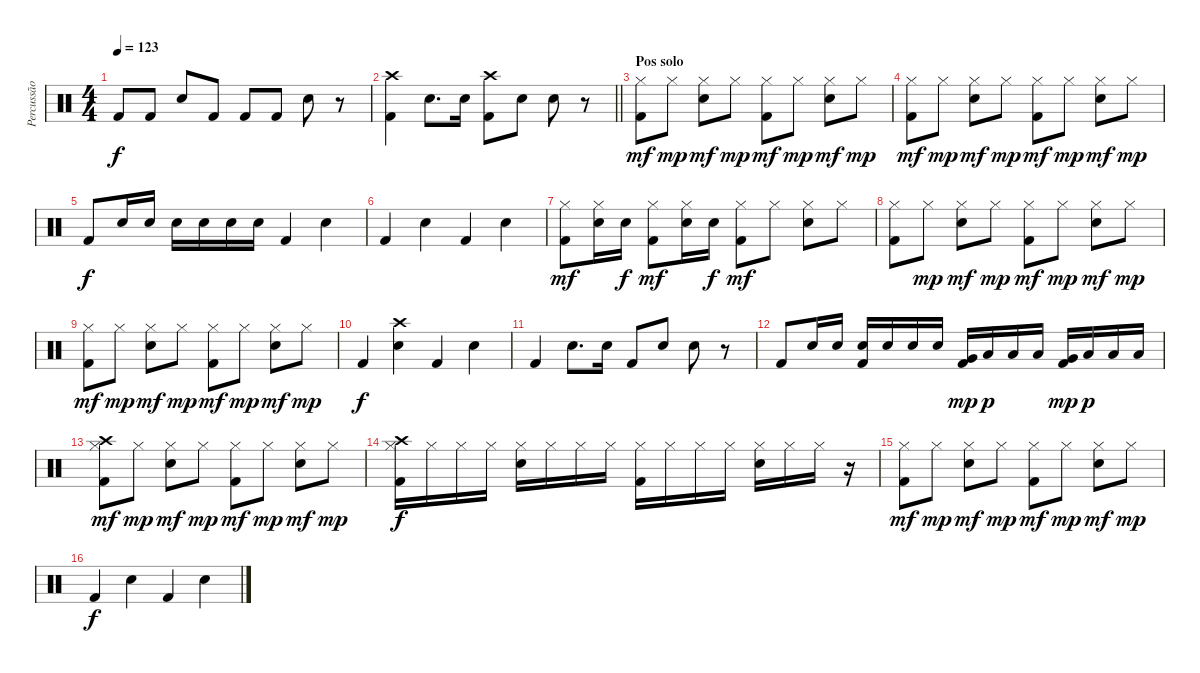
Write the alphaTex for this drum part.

\track ("Percussão" "Percussão") {instrument percussion}
\staff {score}
\articulation defaults
\ts (4 4)
\tempo 123
\clef neutral
\ks c "Kick (hit) 2".8{dy f} "Kick (hit) 2".8 "Snare (hit) 2".8 "Kick (hit) 2".8 "Kick (hit) 2".8 "Kick (hit) 2".8 "Snare (hit) 2".8
r.8 |
\barLineRight lightlight
("Crash high (hit)" "Kick (hit) 2").4 "Snare (hit) 2".8{d} "Snare (hit) 2".16 ("Crash high (hit)" "Kick (hit) 2").8 "Snare (hit) 2".8 "Snare (hit) 2".8 r.8 |
\section ("" "Pos solo")
("Hi-Hat (closed)" "Kick (hit) 2").8{dy mf} "Hi-Hat (closed)".8{dy mp} ("Snare (hit) 2" "Hi-Hat (closed)").8{dy mf} "Hi-Hat (closed)".8{dy mp} ("Hi-Hat (closed)" "Kick (hit) 2").8{dy mf} "Hi-Hat (closed)".8{dy mp} ("Snare (hit) 2" "Hi-Hat (closed)").8{dy mf} "Hi-Hat (closed)".8{dy mp} |
("Hi-Hat (closed)" "Kick (hit) 2").8{dy mf} "Hi-Hat (closed)".8{dy mp} ("Snare (hit) 2" "Hi-Hat (closed)").8{dy mf} "Hi-Hat (closed)".8{dy mp} ("Hi-Hat (closed)" "Kick (hit) 2").8{dy mf} "Hi-Hat (closed)".8{dy mp} ("Snare (hit) 2" "Hi-Hat (closed)").8{dy mf} "Hi-Hat (closed)".8{dy mp} |
"Kick (hit) 2".8{dy f} "Snare (hit) 2".16 "Snare (hit) 2".16 "Snare (hit) 2".16 "Snare (hit) 2".16 "Snare (hit) 2".16 "Snare (hit) 2".16 "Kick (hit) 2".4 "Snare (hit) 2".4 |
"Kick (hit) 2".4 "Snare (hit) 2".4 "Kick (hit) 2".4 "Snare (hit) 2".4 |
("Hi-Hat (closed)" "Kick (hit) 2").8{dy mf} ("Hi-Hat (closed)" "Snare (hit) 2").16 "Snare (hit) 2".16{dy f} ("Hi-Hat (closed)" "Kick (hit) 2").8{dy mf} ("Hi-Hat (closed)" "Snare (hit) 2").16 "Snare (hit) 2".16{dy f} ("Hi-Hat (closed)" "Kick (hit) 2").8{dy mf} "Hi-Hat (closed)".8 ("Hi-Hat (closed)" "Snare (hit) 2").8 "Hi-Hat (closed)".8 |
("Hi-Hat (closed)" "Kick (hit) 2").8 "Hi-Hat (closed)".8{dy mp} ("Snare (hit) 2" "Hi-Hat (closed)").8{dy mf} "Hi-Hat (closed)".8{dy mp} ("Hi-Hat (closed)" "Kick (hit) 2").8{dy mf} "Hi-Hat (closed)".8{dy mp} ("Snare (hit) 2" "Hi-Hat (closed)").8{dy mf} "Hi-Hat (closed)".8{dy mp} |
("Hi-Hat (closed)" "Kick (hit) 2").8{dy mf} "Hi-Hat (closed)".8{dy mp} ("Snare (hit) 2" "Hi-Hat (closed)").8{dy mf} "Hi-Hat (closed)".8{dy mp} ("Hi-Hat (closed)" "Kick (hit) 2").8{dy mf} "Hi-Hat (closed)".8{dy mp} ("Snare (hit) 2" "Hi-Hat (closed)").8{dy mf} "Hi-Hat (closed)".8{dy mp} |
"Kick (hit) 2".4{dy f} ("Crash high (hit)" "Snare (hit) 2").4 "Kick (hit) 2".4 "Snare (hit) 2".4 |
"Kick (hit) 2".4 "Snare (hit) 2".8{d} "Snare (hit) 2".16 "Kick (hit) 2".8 "Snare (hit) 2".8 "Snare (hit) 2".8 r.8 |
"Kick (hit) 2".8 "Snare (hit) 2".16 "Snare (hit) 2".16 ("Snare (hit) 2" "Kick (hit) 2").16 "Snare (hit) 2".16 "Snare (hit) 2".16 "Snare (hit) 2".16 ("Very Low Tom (hit)" "Kick (hit) 2").16{dy mp} "Low Floor Tom (hit)".16{dy p} "Low Floor Tom (hit)".16 "Low Floor Tom (hit)".16 ("Very Low Tom (hit)" "Kick (hit) 2").16{dy mp} "Low Floor Tom (hit)".16{dy p} "Low Floor Tom (hit)".16 "Low Floor Tom (hit)".16 |
("Crash high (hit)" "Hi-Hat (closed)" "Kick (hit) 2").8{dy mf} "Hi-Hat (closed)".8{dy mp} ("Snare (hit) 2" "Hi-Hat (closed)").8{dy mf} "Hi-Hat (closed)".8{dy mp} ("Hi-Hat (closed)" "Kick (hit) 2").8{dy mf} "Hi-Hat (closed)".8{dy mp} ("Snare (hit) 2" "Hi-Hat (closed)").8{dy mf} "Hi-Hat (closed)".8{dy mp} |
("Crash high (hit)" "Hi-Hat (closed)" "Kick (hit) 2").16{dy f} "Hi-Hat (closed)".16 "Hi-Hat (closed)".16 "Hi-Hat (closed)".16 ("Snare (hit) 2" "Hi-Hat (closed)").16 "Hi-Hat (closed)".16 "Hi-Hat (closed)".16 "Hi-Hat (closed)".16 ("Hi-Hat (closed)" "Kick (hit) 2").16 "Hi-Hat (closed)".16 "Hi-Hat (closed)".16 "Hi-Hat (closed)".16 ("Snare (hit) 2" "Hi-Hat (closed)").16 "Hi-Hat (closed)".16 "Hi-Hat (closed)".16 r.16 |
("Hi-Hat (closed)" "Kick (hit) 2").8{dy mf} "Hi-Hat (closed)".8{dy mp} ("Snare (hit) 2" "Hi-Hat (closed)").8{dy mf} "Hi-Hat (closed)".8{dy mp} ("Hi-Hat (closed)" "Kick (hit) 2").8{dy mf} "Hi-Hat (closed)".8{dy mp} ("Snare (hit) 2" "Hi-Hat (closed)").8{dy mf} "Hi-Hat (closed)".8{dy mp} |
"Kick (hit) 2".4{dy f} "Snare (hit) 2".4 "Kick (hit) 2".4 "Snare (hit) 2".4
